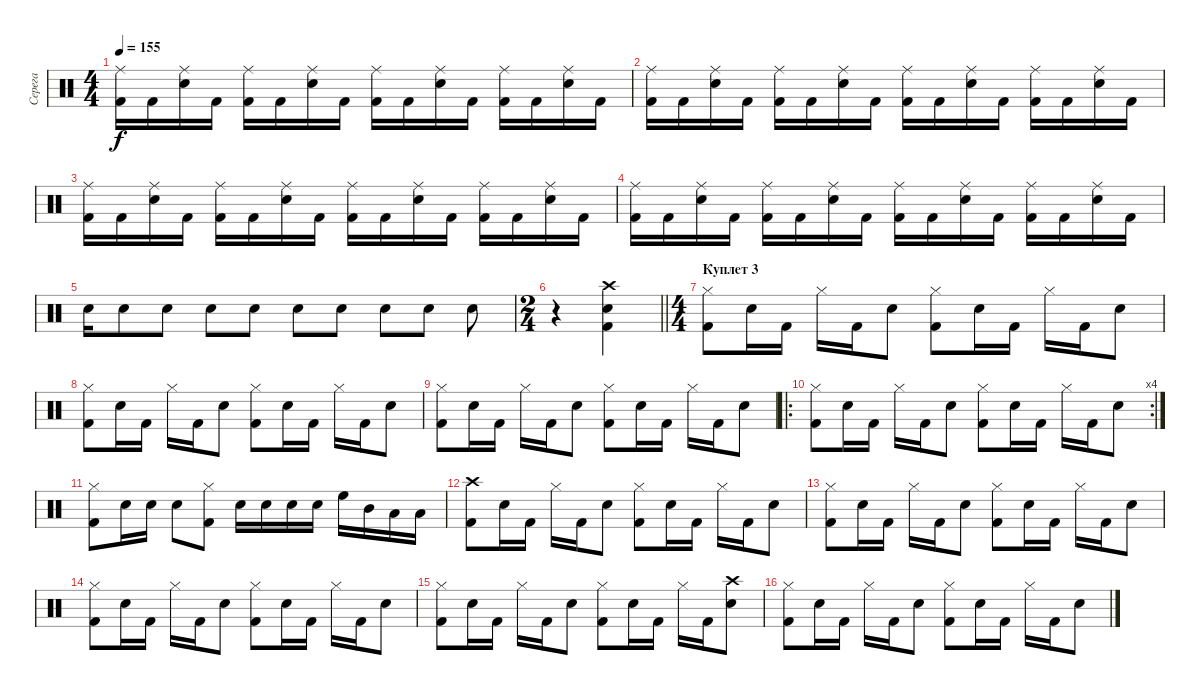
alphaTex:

\track ("Серега" "Серега") {instrument percussion}
\staff {score}
\articulation defaults
\ts (4 4)
\tempo 155
\clef neutral
\ks c
("Kick (hit) 2" "Ride (middle)").16{dy f} "Kick (hit) 2".16 ("Snare (hit) 2" "Ride (middle)").16 "Kick (hit) 2".16 ("Kick (hit) 2" "Ride (middle)").16 "Kick (hit) 2".16 ("Snare (hit) 2" "Ride (middle)").16 "Kick (hit) 2".16 ("Kick (hit) 2" "Ride (middle)").16 "Kick (hit) 2".16 ("Snare (hit) 2" "Ride (middle)").16 "Kick (hit) 2".16 ("Kick (hit) 2" "Ride (middle)").16 "Kick (hit) 2".16 ("Snare (hit) 2" "Ride (middle)").16 "Kick (hit) 2".16 |
("Kick (hit) 2" "Ride (middle)").16 "Kick (hit) 2".16 ("Snare (hit) 2" "Ride (middle)").16 "Kick (hit) 2".16 ("Kick (hit) 2" "Ride (middle)").16 "Kick (hit) 2".16 ("Snare (hit) 2" "Ride (middle)").16 "Kick (hit) 2".16 ("Kick (hit) 2" "Ride (middle)").16 "Kick (hit) 2".16 ("Snare (hit) 2" "Ride (middle)").16 "Kick (hit) 2".16 ("Kick (hit) 2" "Ride (middle)").16 "Kick (hit) 2".16 ("Snare (hit) 2" "Ride (middle)").16 "Kick (hit) 2".16 |
("Kick (hit) 2" "Ride (middle)").16 "Kick (hit) 2".16 ("Snare (hit) 2" "Ride (middle)").16 "Kick (hit) 2".16 ("Kick (hit) 2" "Ride (middle)").16 "Kick (hit) 2".16 ("Snare (hit) 2" "Ride (middle)").16 "Kick (hit) 2".16 ("Kick (hit) 2" "Ride (middle)").16 "Kick (hit) 2".16 ("Snare (hit) 2" "Ride (middle)").16 "Kick (hit) 2".16 ("Kick (hit) 2" "Ride (middle)").16 "Kick (hit) 2".16 ("Snare (hit) 2" "Ride (middle)").16 "Kick (hit) 2".16 |
("Kick (hit) 2" "Ride (middle)").16 "Kick (hit) 2".16 ("Snare (hit) 2" "Ride (middle)").16 "Kick (hit) 2".16 ("Kick (hit) 2" "Ride (middle)").16 "Kick (hit) 2".16 ("Snare (hit) 2" "Ride (middle)").16 "Kick (hit) 2".16 ("Kick (hit) 2" "Ride (middle)").16 "Kick (hit) 2".16 ("Snare (hit) 2" "Ride (middle)").16 "Kick (hit) 2".16 ("Kick (hit) 2" "Ride (middle)").16 "Kick (hit) 2".16 ("Snare (hit) 2" "Ride (middle)").16 "Kick (hit) 2".16 |
"Snare (hit) 2".16 "Snare (hit) 2".8 "Snare (hit) 2".8 "Snare (hit) 2".8 "Snare (hit) 2".8 "Snare (hit) 2".8 "Snare (hit) 2".8 "Snare (hit) 2".8 "Snare (hit) 2".8 "Snare (hit) 2".8 |
\ts (2 4)
\barLineRight lightlight
r.4 ("Crash high (hit)" "Kick (hit) 2" "Snare (hit) 2").4 |
\ts (4 4)
\section ("" "Куплет 3")
("Hi-Hat (closed)" "Kick (hit) 2").8 "Snare (hit) 2".16 "Kick (hit) 2".16 "Hi-Hat (closed)".16 "Kick (hit) 2".16 "Snare (hit) 2".8 ("Hi-Hat (closed)" "Kick (hit) 2").8 "Snare (hit) 2".16 "Kick (hit) 2".16 "Hi-Hat (closed)".16 "Kick (hit) 2".16 "Snare (hit) 2".8 |
("Hi-Hat (closed)" "Kick (hit) 2").8 "Snare (hit) 2".16 "Kick (hit) 2".16 "Hi-Hat (closed)".16 "Kick (hit) 2".16 "Snare (hit) 2".8 ("Hi-Hat (closed)" "Kick (hit) 2").8 "Snare (hit) 2".16 "Kick (hit) 2".16 "Hi-Hat (closed)".16 "Kick (hit) 2".16 "Snare (hit) 2".8 |
("Hi-Hat (closed)" "Kick (hit) 2").8 "Snare (hit) 2".16 "Kick (hit) 2".16 "Hi-Hat (closed)".16 "Kick (hit) 2".16 "Snare (hit) 2".8 ("Hi-Hat (closed)" "Kick (hit) 2").8 "Snare (hit) 2".16 "Kick (hit) 2".16 "Hi-Hat (closed)".16 "Kick (hit) 2".16 "Snare (hit) 2".8 |
\ro
\rc 4
("Hi-Hat (closed)" "Kick (hit) 2").8 "Snare (hit) 2".16 "Kick (hit) 2".16 "Hi-Hat (closed)".16 "Kick (hit) 2".16 "Snare (hit) 2".8 ("Hi-Hat (closed)" "Kick (hit) 2").8 "Snare (hit) 2".16 "Kick (hit) 2".16 "Hi-Hat (closed)".16 "Kick (hit) 2".16 "Snare (hit) 2".8 |
("Hi-Hat (closed)" "Kick (hit) 2").8 "Snare (hit) 2".16 "Snare (hit) 2".16 "Snare (hit) 2".8 ("Hi-Hat (closed)" "Kick (hit) 2").8 "Snare (hit) 2".16 "Snare (hit) 2".16 "Snare (hit) 2".16 "Snare (hit) 2".16 "High Floor Tom (hit)".16 "Mid Tom (hit)".16 "Low Tom (hit)".16 "Low Floor Tom (hit)".16 |
("Crash high (hit)" "Kick (hit) 2").8 "Snare (hit) 2".16 "Kick (hit) 2".16 "Hi-Hat (closed)".16 "Kick (hit) 2".16 "Snare (hit) 2".8 ("Hi-Hat (closed)" "Kick (hit) 2").8 "Snare (hit) 2".16 "Kick (hit) 2".16 "Hi-Hat (closed)".16 "Kick (hit) 2".16 "Snare (hit) 2".8 |
("Hi-Hat (closed)" "Kick (hit) 2").8 "Snare (hit) 2".16 "Kick (hit) 2".16 "Hi-Hat (closed)".16 "Kick (hit) 2".16 "Snare (hit) 2".8 ("Hi-Hat (closed)" "Kick (hit) 2").8 "Snare (hit) 2".16 "Kick (hit) 2".16 "Hi-Hat (closed)".16 "Kick (hit) 2".16 "Snare (hit) 2".8 |
("Hi-Hat (closed)" "Kick (hit) 2").8 "Snare (hit) 2".16 "Kick (hit) 2".16 "Hi-Hat (closed)".16 "Kick (hit) 2".16 "Snare (hit) 2".8 ("Hi-Hat (closed)" "Kick (hit) 2").8 "Snare (hit) 2".16 "Kick (hit) 2".16 "Hi-Hat (closed)".16 "Kick (hit) 2".16 "Snare (hit) 2".8 |
("Hi-Hat (closed)" "Kick (hit) 2").8 "Snare (hit) 2".16 "Kick (hit) 2".16 "Hi-Hat (closed)".16 "Kick (hit) 2".16 "Snare (hit) 2".8 ("Hi-Hat (closed)" "Kick (hit) 2").8 "Snare (hit) 2".16 "Kick (hit) 2".16 "Hi-Hat (closed)".16 "Kick (hit) 2".16 ("Crash high (hit)" "Snare (hit) 2").8 |
("Hi-Hat (closed)" "Kick (hit) 2").8 "Snare (hit) 2".16 "Kick (hit) 2".16 "Hi-Hat (closed)".16 "Kick (hit) 2".16 "Snare (hit) 2".8 ("Hi-Hat (closed)" "Kick (hit) 2").8 "Snare (hit) 2".16 "Kick (hit) 2".16 "Hi-Hat (closed)".16 "Kick (hit) 2".16 "Snare (hit) 2".8
